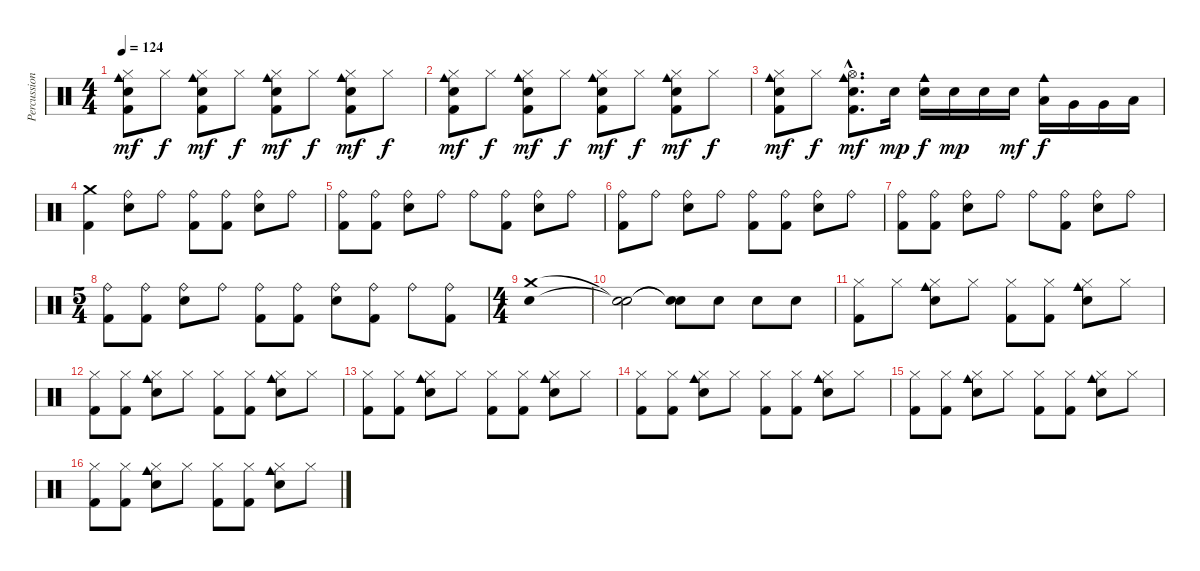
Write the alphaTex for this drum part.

\track ("Percussion" "Percussion") {instrument percussion}
\staff {score}
\articulation defaults
\ts (4 4)
\tempo 124
\clef neutral
\ks c
("Hi-Hat (closed)" "Cowbell medium (hit)" "Metronome (bell)" "Kick (hit) 2").8{dy mf} "Hi-Hat (closed)".8{dy f} ("Hi-Hat (closed)" "Cowbell medium (hit)" "Metronome (bell)" "Kick (hit) 2").8{dy mf} "Hi-Hat (closed)".8{dy f} ("Hi-Hat (closed)" "Cowbell medium (hit)" "Metronome (bell)" "Kick (hit) 2").8{dy mf} "Hi-Hat (closed)".8{dy f} ("Hi-Hat (closed)" "Cowbell medium (hit)" "Metronome (bell)" "Kick (hit) 2").8{dy mf} "Hi-Hat (closed)".8{dy f} |
("Hi-Hat (closed)" "Cowbell medium (hit)" "Metronome (bell)" "Kick (hit) 2").8{dy mf} "Hi-Hat (closed)".8{dy f} ("Hi-Hat (closed)" "Cowbell medium (hit)" "Metronome (bell)" "Kick (hit) 2").8{dy mf} "Hi-Hat (closed)".8{dy f} ("Hi-Hat (closed)" "Cowbell medium (hit)" "Metronome (bell)" "Kick (hit) 2").8{dy mf} "Hi-Hat (closed)".8{dy f} ("Hi-Hat (closed)" "Cowbell medium (hit)" "Metronome (bell)" "Kick (hit) 2").8{dy mf} "Hi-Hat (closed)".8{dy f} |
("Hi-Hat (closed)" "Cowbell medium (hit)" "Metronome (bell)" "Kick (hit) 2").8{dy mf} "Hi-Hat (closed)".8{dy f} ("Hi-Hat (open)"{hac} "Cowbell medium (hit)"{hac} "Metronome (bell)"{hac} "Kick (hit) 2"{hac}).8{d dy mf} "Metronome (bell)".16{dy mp} ("Cowbell medium (hit)" "Metronome (bell)").16{dy f} "Metronome (bell)".16{dy mp} "Metronome (bell)".16 "Metronome (bell)".16{dy mf} ("Cowbell medium (hit)" "Low Tom (hit)").16{dy f} "Very Low Tom (hit)".16 "Very Low Tom (hit)".16 "Low Floor Tom (hit)".16 |
("Crash medium (hit)" "Kick (hit) 2").4 ("Ride (bell)" "Metronome (bell)").8 "Ride (bell)".8 ("Ride (bell)" "Kick (hit) 2").8 ("Ride (bell)" "Kick (hit) 2").8 ("Ride (bell)" "Metronome (bell)").8 "Ride (bell)".8 |
("Ride (bell)" "Kick (hit) 2").8 ("Ride (bell)" "Kick (hit) 2").8 ("Ride (bell)" "Metronome (bell)").8 "Ride (bell)".8 "Ride (bell)".8 ("Ride (bell)" "Kick (hit) 2").8 ("Ride (bell)" "Metronome (bell)").8 "Ride (bell)".8 |
("Ride (bell)" "Kick (hit) 2").8 "Ride (bell)".8 ("Ride (bell)" "Metronome (bell)").8 "Ride (bell)".8 ("Ride (bell)" "Kick (hit) 2").8 ("Ride (bell)" "Kick (hit) 2").8 ("Ride (bell)" "Metronome (bell)").8 "Ride (bell)".8 |
("Ride (bell)" "Kick (hit) 2").8 ("Ride (bell)" "Kick (hit) 2").8 ("Ride (bell)" "Metronome (bell)").8 "Ride (bell)".8 "Ride (bell)".8 ("Ride (bell)" "Kick (hit) 2").8 ("Ride (bell)" "Metronome (bell)").8 "Ride (bell)".8 |
\ts (5 4)
("Ride (bell)" "Kick (hit) 2").8 ("Ride (bell)" "Kick (hit) 2").8 ("Ride (bell)" "Metronome (bell)").8 "Ride (bell)".8 ("Ride (bell)" "Kick (hit) 2").8 ("Ride (bell)" "Kick (hit) 2").8 ("Ride (bell)" "Metronome (bell)").8 ("Ride (bell)" "Kick (hit) 2").8 "Ride (bell)".8 ("Ride (bell)" "Kick (hit) 2").8 |
\ts (4 4)
("Crash medium (hit)" "Metronome (bell)").1 |
("Snare (hit)"{t} "Snare (hit)"{t}).2 ("Snare (hit)"{t} "Snare (hit)"{t}).8 "Metronome (bell)".8 "Metronome (bell)".8 "Metronome (bell)".8 |
("Hi-Hat (closed)" "Kick (hit) 2").8 "Hi-Hat (closed)".8 ("Hi-Hat (closed)" "Cowbell medium (hit)" "Metronome (bell)").8 "Hi-Hat (closed)".8 ("Hi-Hat (closed)" "Kick (hit) 2").8 ("Hi-Hat (closed)" "Kick (hit) 2").8 ("Hi-Hat (closed)" "Cowbell medium (hit)" "Metronome (bell)").8 "Hi-Hat (closed)".8 |
("Hi-Hat (closed)" "Kick (hit) 2").8 ("Hi-Hat (closed)" "Kick (hit) 2").8 ("Hi-Hat (closed)" "Cowbell medium (hit)" "Metronome (bell)").8 "Hi-Hat (closed)".8 ("Hi-Hat (closed)" "Kick (hit) 2").8 ("Hi-Hat (closed)" "Kick (hit) 2").8 ("Hi-Hat (closed)" "Cowbell medium (hit)" "Metronome (bell)").8 "Hi-Hat (closed)".8 |
("Hi-Hat (closed)" "Kick (hit) 2").8 ("Hi-Hat (closed)" "Kick (hit) 2").8 ("Hi-Hat (closed)" "Cowbell medium (hit)" "Metronome (bell)").8 "Hi-Hat (closed)".8 ("Hi-Hat (closed)" "Kick (hit) 2").8 ("Hi-Hat (closed)" "Kick (hit) 2").8 ("Hi-Hat (closed)" "Cowbell medium (hit)" "Metronome (bell)").8 "Hi-Hat (closed)".8 |
("Hi-Hat (closed)" "Kick (hit) 2").8 ("Hi-Hat (closed)" "Kick (hit) 2").8 ("Hi-Hat (closed)" "Cowbell medium (hit)" "Metronome (bell)").8 "Hi-Hat (closed)".8 ("Hi-Hat (closed)" "Kick (hit) 2").8 ("Hi-Hat (closed)" "Kick (hit) 2").8 ("Hi-Hat (closed)" "Cowbell medium (hit)" "Metronome (bell)").8 "Hi-Hat (closed)".8 |
("Hi-Hat (closed)" "Kick (hit) 2").8 ("Hi-Hat (closed)" "Kick (hit) 2").8 ("Hi-Hat (closed)" "Cowbell medium (hit)" "Metronome (bell)").8 "Hi-Hat (closed)".8 ("Hi-Hat (closed)" "Kick (hit) 2").8 ("Hi-Hat (closed)" "Kick (hit) 2").8 ("Hi-Hat (closed)" "Cowbell medium (hit)" "Metronome (bell)").8 "Hi-Hat (closed)".8 |
("Hi-Hat (closed)" "Kick (hit) 2").8 ("Hi-Hat (closed)" "Kick (hit) 2").8 ("Hi-Hat (closed)" "Cowbell medium (hit)" "Metronome (bell)").8 "Hi-Hat (closed)".8 ("Hi-Hat (closed)" "Kick (hit) 2").8 ("Hi-Hat (closed)" "Kick (hit) 2").8 ("Hi-Hat (closed)" "Cowbell medium (hit)" "Metronome (bell)").8 "Hi-Hat (closed)".8
